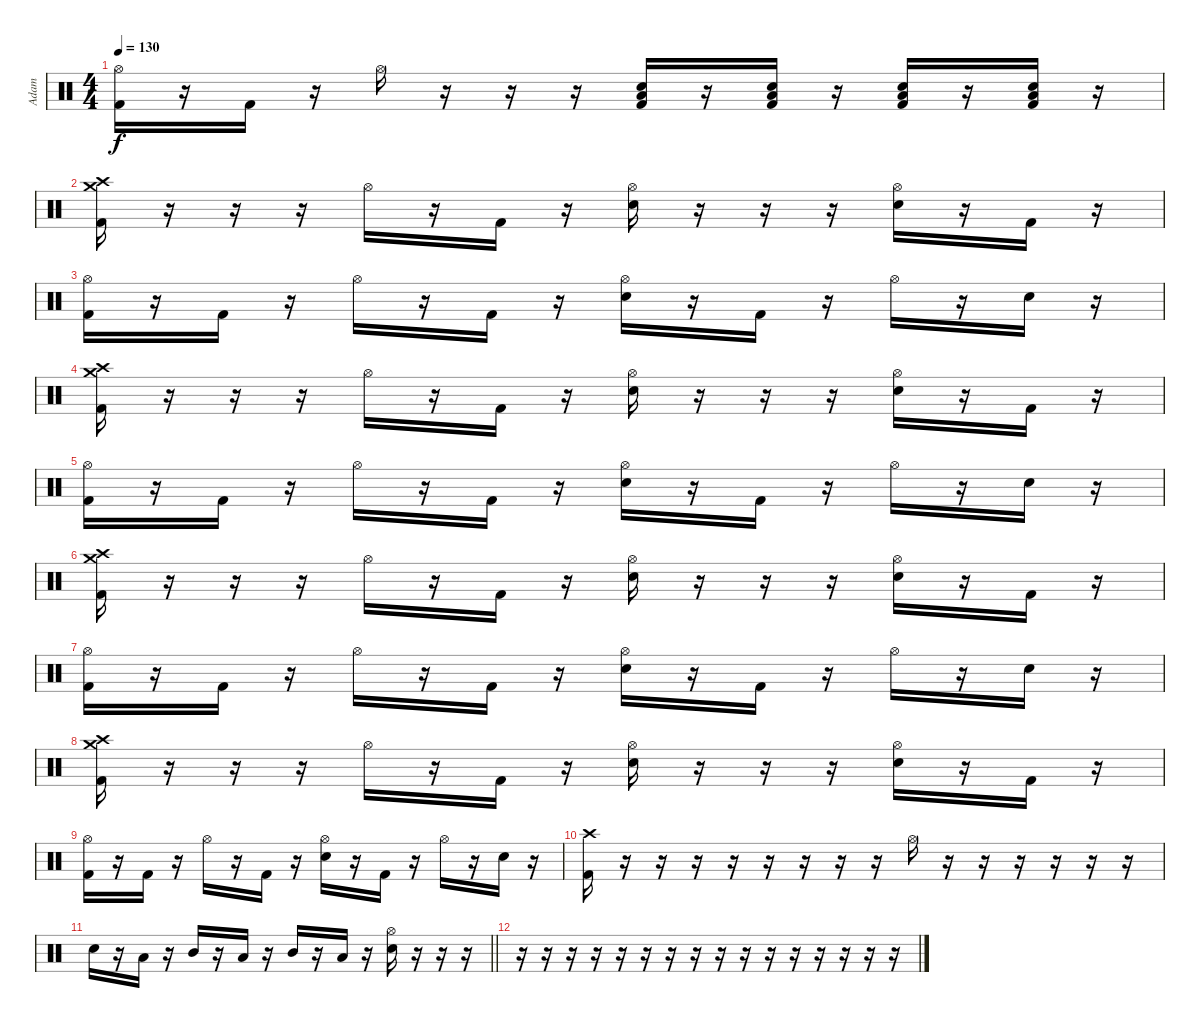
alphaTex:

\track ("Adam" "Adam") {instrument percussion}
\staff {score}
\articulation defaults
\ts (4 4)
\tempo 130
\clef neutral
\ks c
("Hi-Hat (open)" "Kick (hit) 2").16{dy f} r.16 "Kick (hit) 2".16 r.16 "Hi-Hat (open)".16 r.16 r.16 r.16 ("Low Floor Tom (hit)" "Snare (hit) 2" "Kick (hit) 2").16 r.16 ("Low Floor Tom (hit)" "Snare (hit) 2" "Kick (hit) 2").16 r.16 ("Low Floor Tom (hit)" "Snare (hit) 2" "Kick (hit) 2").16 r.16 ("Low Floor Tom (hit)" "Snare (hit) 2" "Kick (hit) 2").16 r.16 |
("Crash high (hit)" "Crash medium (hit)" "Kick (hit) 2").16 r.16 r.16 r.16 "Hi-Hat (open)".16 r.16 "Kick (hit) 2".16 r.16 ("Hi-Hat (open)" "Snare (hit) 2").16 r.16 r.16 r.16 ("Hi-Hat (open)" "Snare (hit) 2").16 r.16 "Kick (hit) 2".16 r.16 |
("Hi-Hat (open)" "Kick (hit) 2").16 r.16 "Kick (hit) 2".16 r.16 "Hi-Hat (open)".16 r.16 "Kick (hit) 2".16 r.16 ("Hi-Hat (open)" "Snare (hit) 2").16 r.16 "Kick (hit) 2".16 r.16 "Hi-Hat (open)".16 r.16 "Snare (hit) 2".16 r.16 |
("Crash high (hit)" "Crash medium (hit)" "Kick (hit) 2").16 r.16 r.16 r.16 "Hi-Hat (open)".16 r.16 "Kick (hit) 2".16 r.16 ("Hi-Hat (open)" "Snare (hit) 2").16 r.16 r.16 r.16 ("Hi-Hat (open)" "Snare (hit) 2").16 r.16 "Kick (hit) 2".16 r.16 |
("Hi-Hat (open)" "Kick (hit) 2").16 r.16 "Kick (hit) 2".16 r.16 "Hi-Hat (open)".16 r.16 "Kick (hit) 2".16 r.16 ("Hi-Hat (open)" "Snare (hit) 2").16 r.16 "Kick (hit) 2".16 r.16 "Hi-Hat (open)".16 r.16 "Snare (hit) 2".16 r.16 |
("Crash high (hit)" "Crash medium (hit)" "Kick (hit) 2").16 r.16 r.16 r.16 "Hi-Hat (open)".16 r.16 "Kick (hit) 2".16 r.16 ("Hi-Hat (open)" "Snare (hit) 2").16 r.16 r.16 r.16 ("Hi-Hat (open)" "Snare (hit) 2").16 r.16 "Kick (hit) 2".16 r.16 |
("Hi-Hat (open)" "Kick (hit) 2").16 r.16 "Kick (hit) 2".16 r.16 "Hi-Hat (open)".16 r.16 "Kick (hit) 2".16 r.16 ("Hi-Hat (open)" "Snare (hit) 2").16 r.16 "Kick (hit) 2".16 r.16 "Hi-Hat (open)".16 r.16 "Snare (hit) 2".16 r.16 |
("Crash high (hit)" "Crash medium (hit)" "Kick (hit) 2").16 r.16 r.16 r.16 "Hi-Hat (open)".16 r.16 "Kick (hit) 2".16 r.16 ("Hi-Hat (open)" "Snare (hit) 2").16 r.16 r.16 r.16 ("Hi-Hat (open)" "Snare (hit) 2").16 r.16 "Kick (hit) 2".16 r.16 |
("Hi-Hat (open)" "Kick (hit) 2").16 r.16 "Kick (hit) 2".16 r.16 "Hi-Hat (open)".16 r.16 "Kick (hit) 2".16 r.16 ("Hi-Hat (open)" "Snare (hit) 2").16 r.16 "Kick (hit) 2".16 r.16 "Hi-Hat (open)".16 r.16 "Snare (hit) 2".16 r.16 |
("Crash high (hit)" "Kick (hit) 2").16 r.16 r.16 r.16 r.16 r.16 r.16 r.16 r.16 "Hi-Hat (open)".16 r.16 r.16 r.16 r.16 r.16 r.16 |
\barLineRight lightlight "Snare (hit) 2".16
r.16 "Low Floor Tom (hit)".16 r.16 "Mid Tom (hit)".16 r.16 "Low Tom (hit)".16 r.16 "Mid Tom (hit)".16 r.16 "Low Floor Tom (hit)".16 r.16 ("Hi-Hat (open)" "Snare (hit) 2").16 r.16 r.16 r.16 |
r.16 r.16 r.16 r.16 r.16 r.16 r.16 r.16 r.16 r.16 r.16 r.16 r.16 r.16 r.16 r.16
